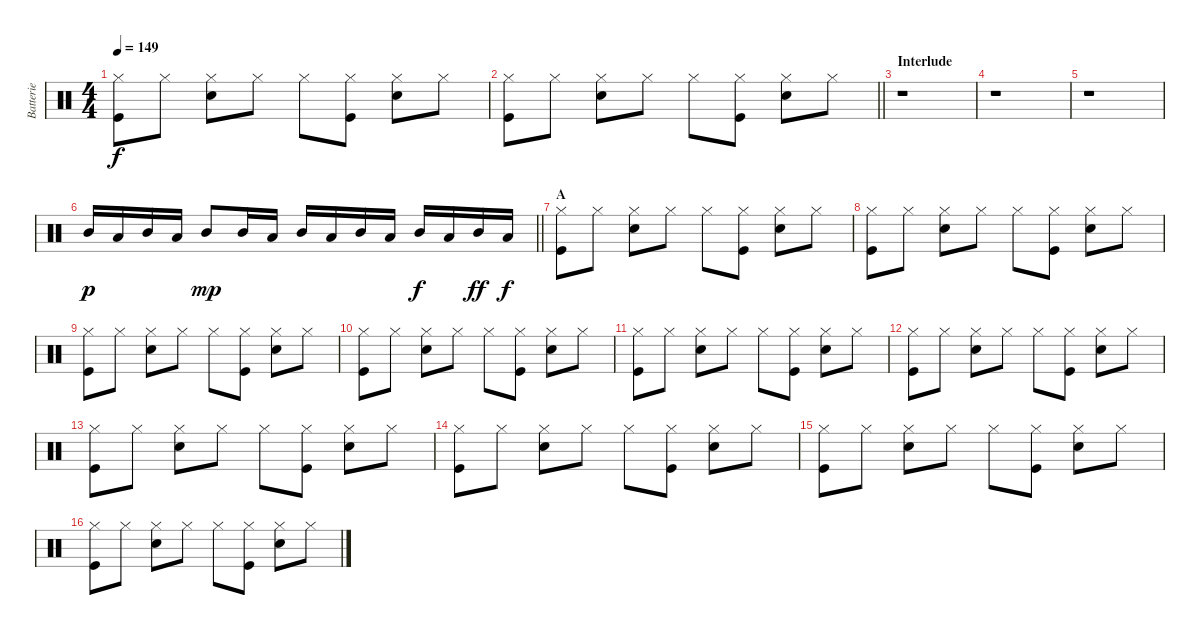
\track ("Batterie" "Batterie") {instrument percussion}
\staff {score}
\articulation defaults
\ts (4 4)
\tempo 149
\clef neutral
\ks c
("Hi-Hat (closed)" "Kick (hit)").8{dy f} "Hi-Hat (closed)".8 ("Hi-Hat (closed)" "Snare (hit) 2").8 "Hi-Hat (closed)".8 "Hi-Hat (closed)".8 ("Hi-Hat (closed)" "Kick (hit)").8 ("Hi-Hat (closed)" "Snare (hit) 2").8 "Hi-Hat (closed)".8 |
\barLineRight lightlight
("Hi-Hat (closed)" "Kick (hit)").8 "Hi-Hat (closed)".8 ("Hi-Hat (closed)" "Snare (hit) 2").8 "Hi-Hat (closed)".8 "Hi-Hat (closed)".8 ("Hi-Hat (closed)" "Kick (hit)").8 ("Hi-Hat (closed)" "Snare (hit) 2").8 "Hi-Hat (closed)".8 |
\section ("" "Interlude")
r.1 |
r.1 |
r.1 |
\barLineRight lightlight "Mid Tom (hit)".16{dy p} "Low Tom (hit)".16 "Mid Tom (hit)".16 "Low Tom (hit)".16 "Mid Tom (hit)".8{dy mp} "Mid Tom (hit)".16 "Low Tom (hit)".16 "Mid Tom (hit)".16 "Low Tom (hit)".16 "Mid Tom (hit)".16 "Low Tom (hit)".16 "Mid Tom (hit)".16{dy f} "Low Tom (hit)".16 "Mid Tom (hit)".16{dy ff} "Low Tom (hit)".16{dy f}
|
\section ("" "A   ")
("Hi-Hat (closed)" "Kick (hit)").8 "Hi-Hat (closed)".8 ("Hi-Hat (closed)" "Snare (hit) 2").8 "Hi-Hat (closed)".8 "Hi-Hat (closed)".8 ("Hi-Hat (closed)" "Kick (hit)").8 ("Hi-Hat (closed)" "Snare (hit) 2").8 "Hi-Hat (closed)".8 |
("Hi-Hat (closed)" "Kick (hit)").8 "Hi-Hat (closed)".8 ("Hi-Hat (closed)" "Snare (hit) 2").8 "Hi-Hat (closed)".8 "Hi-Hat (closed)".8 ("Hi-Hat (closed)" "Kick (hit)").8 ("Hi-Hat (closed)" "Snare (hit) 2").8 "Hi-Hat (closed)".8 |
("Hi-Hat (closed)" "Kick (hit)").8 "Hi-Hat (closed)".8 ("Hi-Hat (closed)" "Snare (hit) 2").8 "Hi-Hat (closed)".8 "Hi-Hat (closed)".8 ("Hi-Hat (closed)" "Kick (hit)").8 ("Hi-Hat (closed)" "Snare (hit) 2").8 "Hi-Hat (closed)".8 |
("Hi-Hat (closed)" "Kick (hit)").8 "Hi-Hat (closed)".8 ("Hi-Hat (closed)" "Snare (hit) 2").8 "Hi-Hat (closed)".8 "Hi-Hat (closed)".8 ("Hi-Hat (closed)" "Kick (hit)").8 ("Hi-Hat (closed)" "Snare (hit) 2").8 "Hi-Hat (closed)".8 |
("Hi-Hat (closed)" "Kick (hit)").8 "Hi-Hat (closed)".8 ("Hi-Hat (closed)" "Snare (hit) 2").8 "Hi-Hat (closed)".8 "Hi-Hat (closed)".8 ("Hi-Hat (closed)" "Kick (hit)").8 ("Hi-Hat (closed)" "Snare (hit) 2").8 "Hi-Hat (closed)".8 |
("Hi-Hat (closed)" "Kick (hit)").8 "Hi-Hat (closed)".8 ("Hi-Hat (closed)" "Snare (hit) 2").8 "Hi-Hat (closed)".8 "Hi-Hat (closed)".8 ("Hi-Hat (closed)" "Kick (hit)").8 ("Hi-Hat (closed)" "Snare (hit) 2").8 "Hi-Hat (closed)".8 |
("Hi-Hat (closed)" "Kick (hit)").8 "Hi-Hat (closed)".8 ("Hi-Hat (closed)" "Snare (hit) 2").8 "Hi-Hat (closed)".8 "Hi-Hat (closed)".8 ("Hi-Hat (closed)" "Kick (hit)").8 ("Hi-Hat (closed)" "Snare (hit) 2").8 "Hi-Hat (closed)".8 |
("Hi-Hat (closed)" "Kick (hit)").8 "Hi-Hat (closed)".8 ("Hi-Hat (closed)" "Snare (hit) 2").8 "Hi-Hat (closed)".8 "Hi-Hat (closed)".8 ("Hi-Hat (closed)" "Kick (hit)").8 ("Hi-Hat (closed)" "Snare (hit) 2").8 "Hi-Hat (closed)".8 |
("Hi-Hat (closed)" "Kick (hit)").8 "Hi-Hat (closed)".8 ("Hi-Hat (closed)" "Snare (hit) 2").8 "Hi-Hat (closed)".8 "Hi-Hat (closed)".8 ("Hi-Hat (closed)" "Kick (hit)").8 ("Hi-Hat (closed)" "Snare (hit) 2").8 "Hi-Hat (closed)".8 |
("Hi-Hat (closed)" "Kick (hit)").8 "Hi-Hat (closed)".8 ("Hi-Hat (closed)" "Snare (hit) 2").8 "Hi-Hat (closed)".8 "Hi-Hat (closed)".8 ("Hi-Hat (closed)" "Kick (hit)").8 ("Hi-Hat (closed)" "Snare (hit) 2").8 "Hi-Hat (closed)".8
